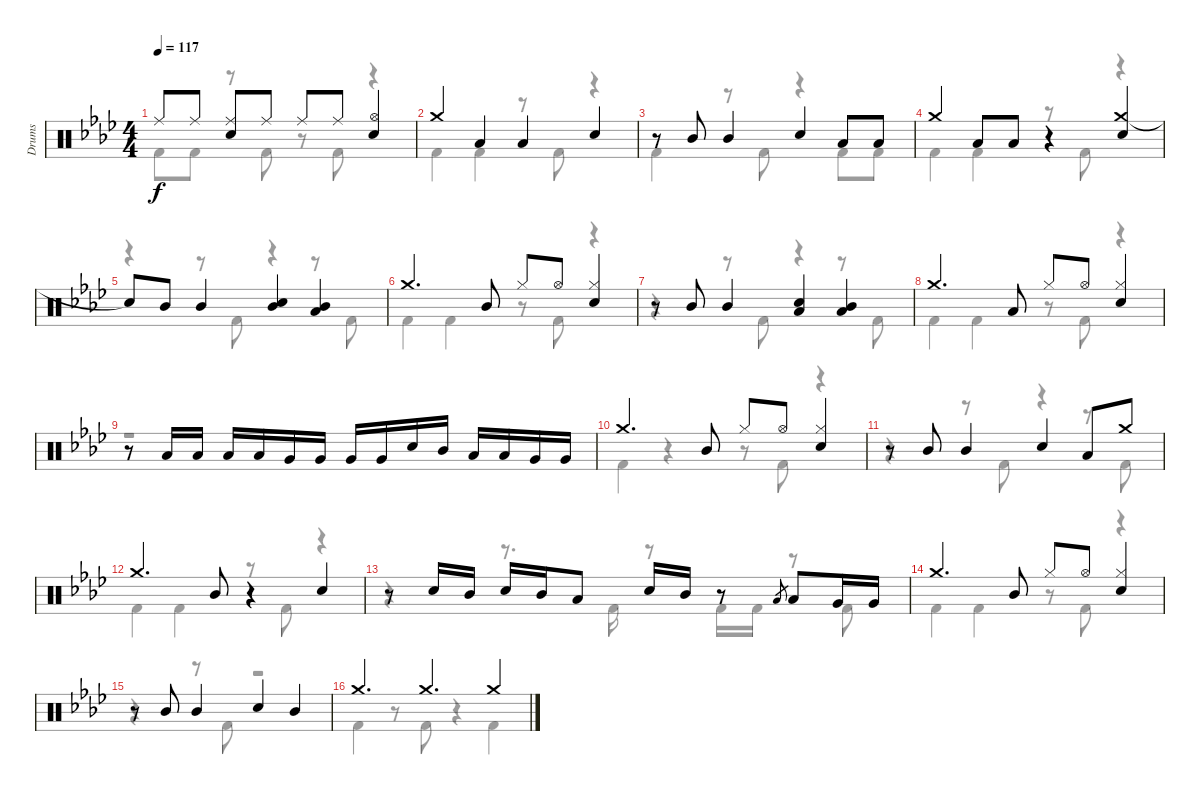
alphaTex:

\track ("Drums" "Drums") {instrument percussion}
\staff {score}
\articulation defaults
\voice
\ts (4 4)
\tempo 117
\clef neutral
\ks ab "Ride (middle)".8{dy f} "Ride (middle)".8
("Ride (middle)" "Snare (hit) 2").8 "Ride (middle)".8 "Ride (middle)".8 "Ride (middle)".8 ("Hi-Hat (open)" "Snare (hit) 2").4 |
"Crash medium (hit)".4 "Low Tom (hit)".4 "Low Tom (hit)".4 "Snare (hit) 2".4 |
r.8 "Mid Tom (hit)".8 "Mid Tom (hit)".4 "Snare (hit) 2".4 "Low Tom (hit)".8 "Low Tom (hit)".8 |
"Crash medium (hit)".4 "Low Tom (hit)".8 "Low Tom (hit)".8 r.4 ("Crash medium (hit)" "Snare (hit) 2").4 |
"Snare (hit)"{t}.8 "Mid Tom (hit)".8 "Mid Tom (hit)".4 ("Mid Tom (hit)" "Snare (hit) 2").4 ("Mid Tom (hit)" "Low Tom (hit)").4 |
"Crash medium (hit)".4{d} "Mid Tom (hit)".8 "Hi-Hat (closed)".8 "Hi-Hat (open)".8 ("Hi-Hat (closed)" "Snare (hit) 2").4 |
r.8 "Mid Tom (hit)".8 "Mid Tom (hit)".4 ("Snare (hit) 2" "Low Tom (hit)").4 ("Low Tom (hit)" "Mid Tom (hit)").4 |
"Crash medium (hit)".4{d} "Low Tom (hit)".8 "Hi-Hat (closed)".8 "Hi-Hat (open)".8 ("Hi-Hat (closed)" "Snare (hit) 2").4 |
r.8 "Low Tom (hit)".16 "Low Tom (hit)".16 "Low Tom (hit)".16 "Low Tom (hit)".16 "Very Low Tom (hit)".16 "Very Low Tom (hit)".16 "Very Low Tom (hit)".16 "Very Low Tom (hit)".16 "Snare (hit) 2".16 "Mid Tom (hit)".16 "Low Tom (hit)".16 "Low Tom (hit)".16 "Very Low Tom (hit)".16 "Very Low Tom (hit)".16 |
"Crash medium (hit)".4{d} "Mid Tom (hit)".8 "Hi-Hat (closed)".8 "Hi-Hat (open)".8 ("Hi-Hat (closed)" "Snare (hit) 2").4 |
r.8 "Mid Tom (hit)".8 "Mid Tom (hit)".4 "Snare (hit) 2".4 "Low Tom (hit)".8 "Crash medium (hit)".8 |
"Crash medium (hit)".4{d} "Mid Tom (hit)".8 r.4 "Snare (hit) 2".4 |
r.8 "Snare (hit) 2".16 "Mid Tom (hit)".16 "Snare (hit) 2".16 "Mid Tom (hit)".16 "Low Tom (hit)".8 "Snare (hit) 2".16 "Mid Tom (hit)".16 r.8 "Low Tom (hit)".8{gr} "Low Tom (hit)".8 "Very Low Tom (hit)".16 "Very Low Tom (hit)".16 |
"Crash medium (hit)".4{d} "Mid Tom (hit)".8 "Hi-Hat (closed)".8 "Hi-Hat (open)".8 ("Hi-Hat (closed)" "Snare (hit) 2").4 |
r.8 "Mid Tom (hit)".8 "Mid Tom (hit)".4 "Snare (hit) 2".4 "Mid Tom (hit)".4 |
"Crash medium (hit)".4{d} "Crash medium (hit)".4{d} "Crash medium (hit)".4
\voice
\clef neutral
\ottava regular
\simile none
\ks ab "Kick (hit) 2".8{dy f} "Kick (hit) 2".8
r.8 "Kick (hit) 2".8 r.8 "Kick (hit) 2".8 r.4 |
"Kick (hit) 2".4 "Kick (hit) 2".4 r.8 "Kick (hit) 2".8 r.4 |
"Kick (hit) 2".4 r.8 "Kick (hit) 2".8 r.4 "Kick (hit) 2".8 "Kick (hit) 2".8 |
"Kick (hit) 2".4 "Kick (hit) 2".4 r.8 "Kick (hit) 2".8 r.4 |
r.4 r.8 "Kick (hit) 2".8 r.4 r.8 "Kick (hit) 2".8 |
"Kick (hit) 2".4 "Kick (hit) 2".4 r.8 "Kick (hit) 2".8 r.4 |
r.4 r.8 "Kick (hit) 2".8 r.4 r.8 "Kick (hit) 2".8 |
"Kick (hit) 2".4 "Kick (hit) 2".4 r.8 "Kick (hit) 2".8 r.4 |
r.1 |
"Kick (hit) 2".4 r.4 r.8 "Kick (hit) 2".8 r.4 |
r.4 r.8 "Kick (hit) 2".8 r.4 r.8 "Kick (hit) 2".8 |
"Kick (hit) 2".4 "Kick (hit) 2".4 r.8 "Kick (hit) 2".8 r.4 |
r.4 r.8{d} "Kick (hit) 2".16 r.8 "Kick (hit) 2".16 "Kick (hit) 2".16 r.8 "Kick (hit) 2".8 |
"Kick (hit) 2".4 "Kick (hit) 2".4 r.8 "Kick (hit) 2".8 r.4 |
r.4 r.8 "Kick (hit) 2".8 r.2 |
"Kick (hit) 2".4 r.8 "Kick (hit) 2".8 r.4 "Kick (hit) 2".4
